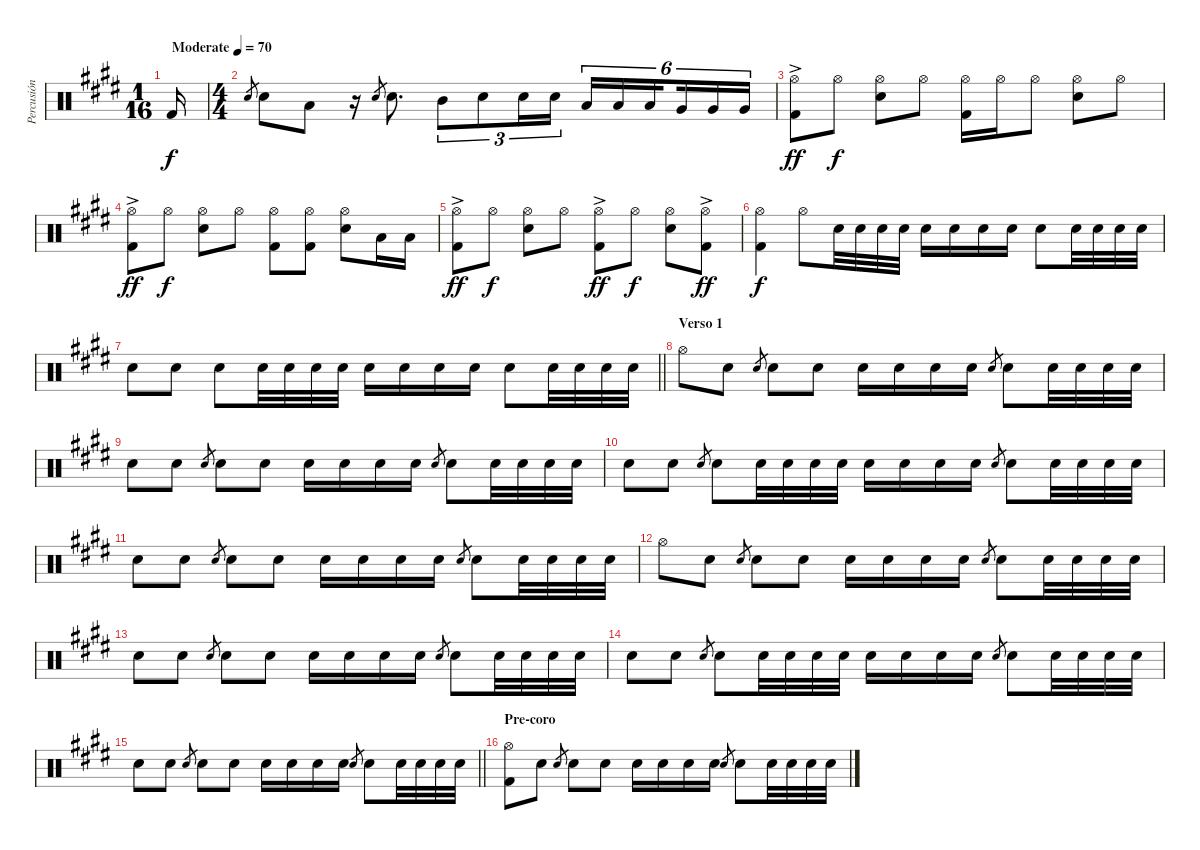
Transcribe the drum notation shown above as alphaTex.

\track ("Percusión" "Percusión") {instrument percussion}
\staff {score}
\articulation defaults
\ts (1 16)
\tempo (70 "Moderate")
\clef neutral
\ks e "Kick (hit) 2".16{dy f}
|
\ts (4 4)
"Snare (hit) 2".8{gr} "Snare (hit) 2".8 "Low Tom (hit)".8 r.16 "Snare (hit) 2".8{gr} "Snare (hit) 2".8{d} "Mid Tom (hit)".8{tu (3 2)} "Electric Snare (hit)".8{tu (3 2)} "Electric Snare (hit)".16{tu (3 2)} "Electric Snare (hit)".16{tu (3 2)} "Low Tom (hit)".16{tu (6 4)} "Low Tom (hit)".16{tu (6 4)} "Low Tom (hit)".16{tu (6 4) beam splitsecondary} "Very Low Tom (hit)".16{tu (6 4)} "Very Low Tom (hit)".16{tu (6 4)} "Very Low Tom (hit)".16{tu (6 4)} |
("Hi-Hat (open)"{ac} "Kick (hit) 2"{ac}).8{dy ff} "Hi-Hat (open)".8{dy f} ("Hi-Hat (open)" "Snare (hit) 2").8 "Hi-Hat (open)".8 ("Hi-Hat (open)" "Kick (hit) 2").16 "Hi-Hat (open)".16 "Hi-Hat (open)".8 ("Hi-Hat (open)" "Snare (hit) 2").8 "Hi-Hat (open)".8 |
("Hi-Hat (open)"{ac} "Kick (hit) 2"{ac}).8{dy ff} "Hi-Hat (open)".8{dy f} ("Hi-Hat (open)" "Snare (hit) 2").8 "Hi-Hat (open)".8 ("Hi-Hat (open)" "Kick (hit) 2").8 ("Hi-Hat (open)" "Kick (hit) 2").8 ("Hi-Hat (open)" "Snare (hit) 2").8 "Low Tom (hit)".16 "Low Tom (hit)".16 |
("Hi-Hat (open)"{ac} "Kick (hit) 2"{ac}).8{dy ff} "Hi-Hat (open)".8{dy f} ("Hi-Hat (open)" "Snare (hit) 2").8 "Hi-Hat (open)".8 ("Hi-Hat (open)"{ac} "Kick (hit) 2"{ac}).8{dy ff} "Hi-Hat (open)".8{dy f} ("Hi-Hat (open)" "Snare (hit) 2").8 ("Hi-Hat (open)"{ac} "Kick (hit) 2"{ac}).8{dy ff} |
("Hi-Hat (open)" "Kick (hit) 2").4{dy f} "Hi-Hat (open)".8 "Snare (hit) 2".32 "Snare (hit) 2".32 "Snare (hit) 2".32 "Snare (hit) 2".32 "Snare (hit) 2".16 "Snare (hit) 2".16 "Snare (hit) 2".16 "Snare (hit) 2".16 "Snare (hit) 2".8 "Snare (hit) 2".32 "Snare (hit) 2".32 "Snare (hit) 2".32 "Snare (hit) 2".32 |
\barLineRight lightlight "Snare (hit) 2".8 "Snare (hit) 2".8 "Snare (hit) 2".8 "Snare (hit) 2".32 "Snare (hit) 2".32 "Snare (hit) 2".32 "Snare (hit) 2".32 "Snare (hit) 2".16 "Snare (hit) 2".16 "Snare (hit) 2".16 "Snare (hit) 2".16 "Snare (hit) 2".8 "Snare (hit) 2".32 "Snare (hit) 2".32 "Snare (hit) 2".32 "Snare (hit) 2".32
|
\section ("" "Verso 1")
"Hi-Hat (open)".8{volume 6} "Snare (hit) 2".8 "Snare (hit) 2".8{gr} "Snare (hit) 2".8 "Snare (hit) 2".8 "Snare (hit) 2".16 "Snare (hit) 2".16 "Snare (hit) 2".16 "Snare (hit) 2".16 "Snare (hit) 2".8{gr} "Snare (hit) 2".8 "Snare (hit) 2".32 "Snare (hit) 2".32 "Snare (hit) 2".32 "Snare (hit) 2".32 |
"Snare (hit) 2".8 "Snare (hit) 2".8 "Snare (hit) 2".8{gr} "Snare (hit) 2".8 "Snare (hit) 2".8 "Snare (hit) 2".16 "Snare (hit) 2".16 "Snare (hit) 2".16 "Snare (hit) 2".16 "Snare (hit) 2".8{gr} "Snare (hit) 2".8 "Snare (hit) 2".32 "Snare (hit) 2".32 "Snare (hit) 2".32 "Snare (hit) 2".32 |
"Snare (hit) 2".8 "Snare (hit) 2".8 "Snare (hit) 2".8{gr} "Snare (hit) 2".8 "Snare (hit) 2".32 "Snare (hit) 2".32 "Snare (hit) 2".32 "Snare (hit) 2".32 "Snare (hit) 2".16 "Snare (hit) 2".16 "Snare (hit) 2".16 "Snare (hit) 2".16 "Snare (hit) 2".8{gr} "Snare (hit) 2".8 "Snare (hit) 2".32 "Snare (hit) 2".32 "Snare (hit) 2".32 "Snare (hit) 2".32 |
"Snare (hit) 2".8 "Snare (hit) 2".8 "Snare (hit) 2".8{gr} "Snare (hit) 2".8 "Snare (hit) 2".8 "Snare (hit) 2".16 "Snare (hit) 2".16 "Snare (hit) 2".16 "Snare (hit) 2".16 "Snare (hit) 2".8{gr} "Snare (hit) 2".8 "Snare (hit) 2".32 "Snare (hit) 2".32 "Snare (hit) 2".32 "Snare (hit) 2".32 |
"Hi-Hat (open)".8{volume 6} "Snare (hit) 2".8 "Snare (hit) 2".8{gr} "Snare (hit) 2".8 "Snare (hit) 2".8 "Snare (hit) 2".16 "Snare (hit) 2".16 "Snare (hit) 2".16 "Snare (hit) 2".16 "Snare (hit) 2".8{gr} "Snare (hit) 2".8 "Snare (hit) 2".32 "Snare (hit) 2".32 "Snare (hit) 2".32 "Snare (hit) 2".32 |
"Snare (hit) 2".8 "Snare (hit) 2".8 "Snare (hit) 2".8{gr} "Snare (hit) 2".8 "Snare (hit) 2".8 "Snare (hit) 2".16 "Snare (hit) 2".16 "Snare (hit) 2".16 "Snare (hit) 2".16 "Snare (hit) 2".8{gr} "Snare (hit) 2".8 "Snare (hit) 2".32 "Snare (hit) 2".32 "Snare (hit) 2".32 "Snare (hit) 2".32 |
"Snare (hit) 2".8 "Snare (hit) 2".8 "Snare (hit) 2".8{gr} "Snare (hit) 2".8 "Snare (hit) 2".32 "Snare (hit) 2".32 "Snare (hit) 2".32 "Snare (hit) 2".32 "Snare (hit) 2".16 "Snare (hit) 2".16 "Snare (hit) 2".16 "Snare (hit) 2".16 "Snare (hit) 2".8{gr} "Snare (hit) 2".8 "Snare (hit) 2".32 "Snare (hit) 2".32 "Snare (hit) 2".32 "Snare (hit) 2".32 |
\barLineRight lightlight "Snare (hit) 2".8 "Snare (hit) 2".8 "Snare (hit) 2".8{gr} "Snare (hit) 2".8 "Snare (hit) 2".8 "Snare (hit) 2".16 "Snare (hit) 2".16 "Snare (hit) 2".16 "Snare (hit) 2".16 "Snare (hit) 2".8{gr} "Snare (hit) 2".8 "Snare (hit) 2".32 "Snare (hit) 2".32 "Snare (hit) 2".32 "Snare (hit) 2".32
|
\section ("" "Pre-coro")
("Hi-Hat (open)" "Kick (hit) 2").8 "Snare (hit) 2".8 "Snare (hit) 2".8{gr} "Snare (hit) 2".8 "Snare (hit) 2".8 "Snare (hit) 2".16 "Snare (hit) 2".16 "Snare (hit) 2".16 "Snare (hit) 2".16 "Snare (hit) 2".8{gr} "Snare (hit) 2".8 "Snare (hit) 2".32 "Snare (hit) 2".32 "Snare (hit) 2".32 "Snare (hit) 2".32
